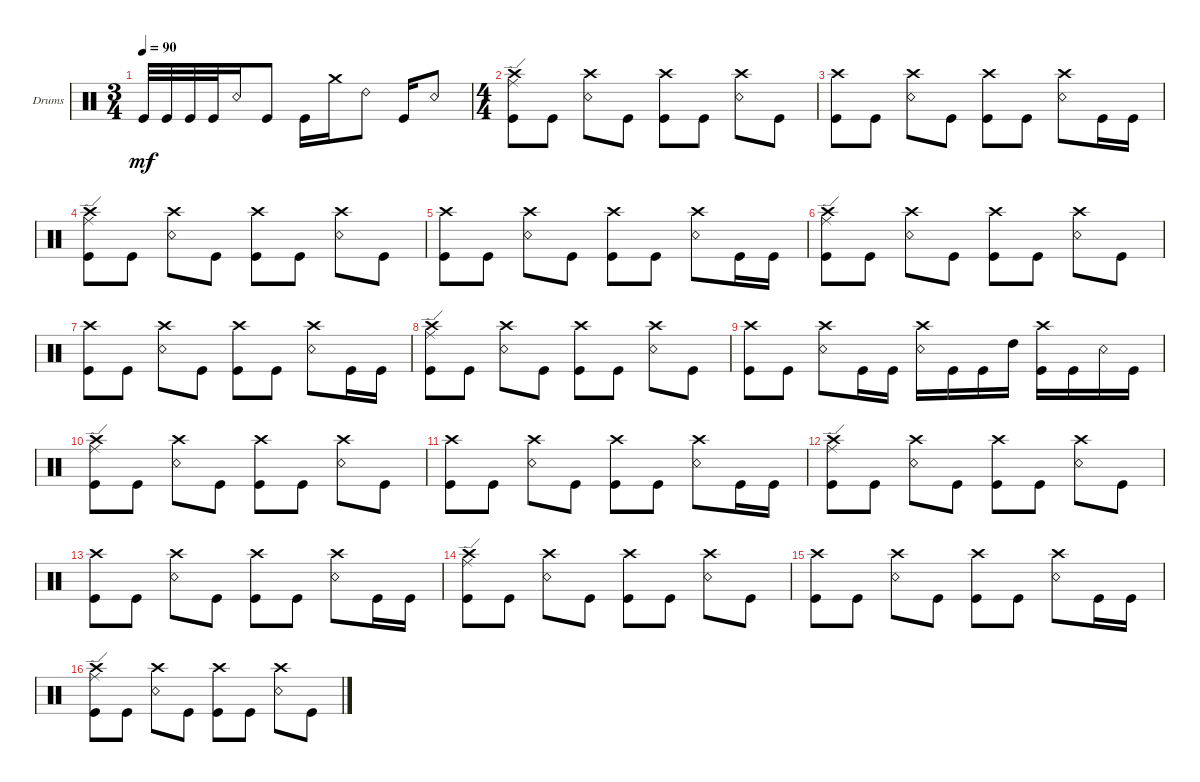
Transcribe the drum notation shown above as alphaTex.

\defaultSystemsLayout 4
\bracketExtendMode groupsimilarinstruments
\firstSystemTrackNameOrientation horizontal
\otherSystemsTrackNameOrientation horizontal
\track ("Drumkit" "Drums") {instrument percussion}
\staff {score}
\articulation defaults
\ts (3 4)
\tempo 90
\clef neutral
\ks c "Kick (hit)".32{dy mf} "Kick (hit)".32 "Kick (hit)".32 "Kick (hit)".32 "Snare (rim shot)".16 "Kick (hit)".8 "Kick (hit)".16 "Crash medium (hit)".16 "Ride (bell) 2".8 "Kick (hit)".16 "Snare (rim shot)".8
|
\ts (4 4)
("Kick (hit)" "Ride (edge)" "Crash high (hit)").8 "Kick (hit)".8 ("Snare (rim shot)" "Crash high (hit)").8 "Kick (hit)".8 ("Kick (hit)" "Crash high (hit)").8 "Kick (hit)".8 ("Snare (rim shot)" "Crash high (hit)").8 "Kick (hit)".8 |
("Kick (hit)" "Crash high (hit)").8 "Kick (hit)".8 ("Snare (rim shot)" "Crash high (hit)").8 "Kick (hit)".8 ("Kick (hit)" "Crash high (hit)").8 "Kick (hit)".8 ("Snare (rim shot)" "Crash high (hit)").8 "Kick (hit)".16 "Kick (hit)".16 |
("Kick (hit)" "Ride (edge)" "Crash high (hit)").8 "Kick (hit)".8 ("Snare (rim shot)" "Crash high (hit)").8 "Kick (hit)".8 ("Kick (hit)" "Crash high (hit)").8 "Kick (hit)".8 ("Snare (rim shot)" "Crash high (hit)").8 "Kick (hit)".8 |
("Kick (hit)" "Crash high (hit)").8 "Kick (hit)".8 ("Snare (rim shot)" "Crash high (hit)").8 "Kick (hit)".8 ("Kick (hit)" "Crash high (hit)").8 "Kick (hit)".8 ("Snare (rim shot)" "Crash high (hit)").8 "Kick (hit)".16 "Kick (hit)".16 |
("Kick (hit)" "Ride (edge)" "Crash high (hit)").8 "Kick (hit)".8 ("Snare (rim shot)" "Crash high (hit)").8 "Kick (hit)".8 ("Kick (hit)" "Crash high (hit)").8 "Kick (hit)".8 ("Snare (rim shot)" "Crash high (hit)").8 "Kick (hit)".8 |
("Kick (hit)" "Crash high (hit)").8 "Kick (hit)".8 ("Snare (rim shot)" "Crash high (hit)").8 "Kick (hit)".8 ("Kick (hit)" "Crash high (hit)").8 "Kick (hit)".8 ("Snare (rim shot)" "Crash high (hit)").8 "Kick (hit)".16 "Kick (hit)".16 |
("Kick (hit)" "Ride (edge)" "Crash high (hit)").8 "Kick (hit)".8 ("Snare (rim shot)" "Crash high (hit)").8 "Kick (hit)".8 ("Kick (hit)" "Crash high (hit)").8 "Kick (hit)".8 ("Snare (rim shot)" "Crash high (hit)").8 "Kick (hit)".8 |
("Kick (hit)" "Crash high (hit)").8 "Kick (hit)".8 ("Snare (rim shot)" "Crash high (hit)").8 "Kick (hit)".16 "Kick (hit)".16 ("Snare (rim shot)" "Crash high (hit)").16 "Kick (hit)".16 "Kick (hit)".16 "High Tom (hit)".16 ("Kick (hit)" "Crash high (hit)").16 "Kick (hit)".16 "Snare (rim shot)".16 "Kick (hit)".16 |
("Kick (hit)" "Ride (edge)" "Crash high (hit)").8 "Kick (hit)".8 ("Snare (rim shot)" "Crash high (hit)").8 "Kick (hit)".8 ("Kick (hit)" "Crash high (hit)").8 "Kick (hit)".8 ("Snare (rim shot)" "Crash high (hit)").8 "Kick (hit)".8 |
("Kick (hit)" "Crash high (hit)").8 "Kick (hit)".8 ("Snare (rim shot)" "Crash high (hit)").8 "Kick (hit)".8 ("Kick (hit)" "Crash high (hit)").8 "Kick (hit)".8 ("Snare (rim shot)" "Crash high (hit)").8 "Kick (hit)".16 "Kick (hit)".16 |
("Kick (hit)" "Ride (edge)" "Crash high (hit)").8 "Kick (hit)".8 ("Snare (rim shot)" "Crash high (hit)").8 "Kick (hit)".8 ("Kick (hit)" "Crash high (hit)").8 "Kick (hit)".8 ("Snare (rim shot)" "Crash high (hit)").8 "Kick (hit)".8 |
("Kick (hit)" "Crash high (hit)").8 "Kick (hit)".8 ("Snare (rim shot)" "Crash high (hit)").8 "Kick (hit)".8 ("Kick (hit)" "Crash high (hit)").8 "Kick (hit)".8 ("Snare (rim shot)" "Crash high (hit)").8 "Kick (hit)".16 "Kick (hit)".16 |
("Kick (hit)" "Ride (edge)" "Crash high (hit)").8 "Kick (hit)".8 ("Snare (rim shot)" "Crash high (hit)").8 "Kick (hit)".8 ("Kick (hit)" "Crash high (hit)").8 "Kick (hit)".8 ("Snare (rim shot)" "Crash high (hit)").8 "Kick (hit)".8 |
("Kick (hit)" "Crash high (hit)").8 "Kick (hit)".8 ("Snare (rim shot)" "Crash high (hit)").8 "Kick (hit)".8 ("Kick (hit)" "Crash high (hit)").8 "Kick (hit)".8 ("Snare (rim shot)" "Crash high (hit)").8 "Kick (hit)".16 "Kick (hit)".16 |
("Kick (hit)" "Ride (edge)" "Crash high (hit)").8 "Kick (hit)".8 ("Snare (rim shot)" "Crash high (hit)").8 "Kick (hit)".8 ("Kick (hit)" "Crash high (hit)").8 "Kick (hit)".8 ("Snare (rim shot)" "Crash high (hit)").8 "Kick (hit)".8
